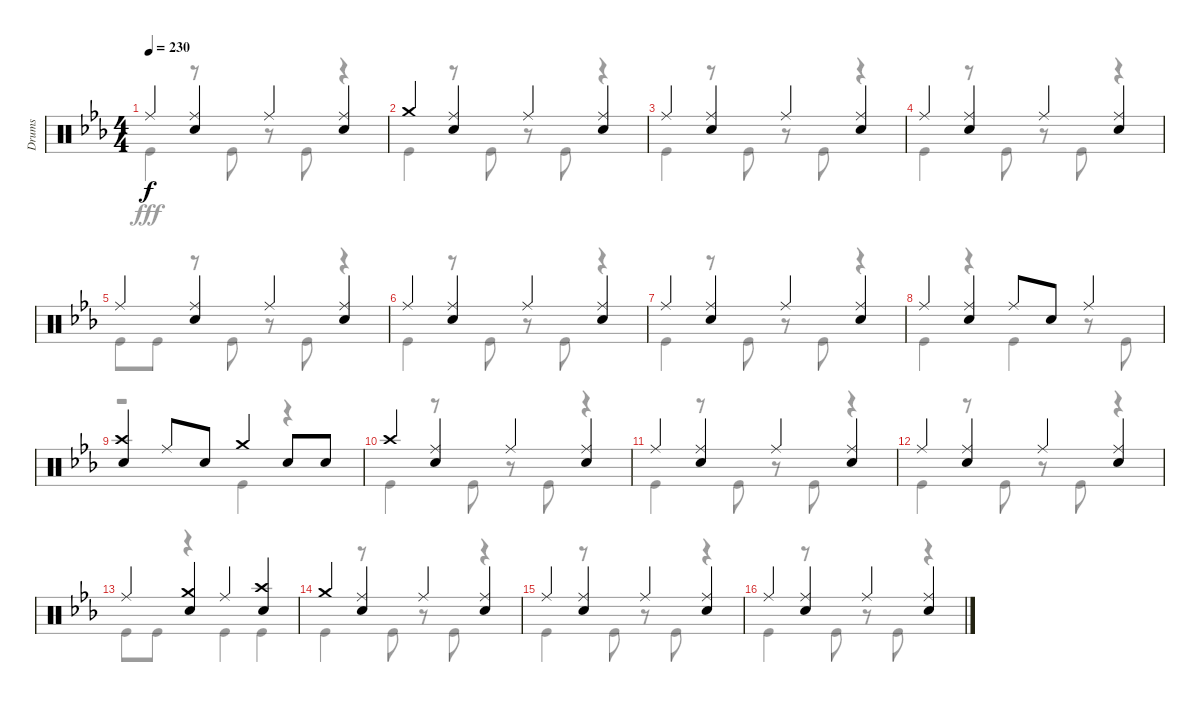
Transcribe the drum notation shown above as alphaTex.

\track ("Drums" "Drums") {instrument percussion}
\staff {score}
\articulation defaults
\voice
\ts (4 4)
\tempo 230
\clef neutral
\ks eb "Ride (middle)".4{dy f}
("Ride (middle)" "Snare (hit) 2").4 "Ride (middle)".4 ("Ride (middle)" "Snare (hit) 2").4 |
"Crash medium (hit)".4 ("Ride (middle)" "Snare (hit) 2").4 "Ride (middle)".4 ("Ride (middle)" "Snare (hit) 2").4 |
"Ride (middle)".4 ("Ride (middle)" "Snare (hit) 2").4 "Ride (middle)".4 ("Ride (middle)" "Snare (hit) 2").4 |
"Ride (middle)".4 ("Ride (middle)" "Snare (hit) 2").4 "Ride (middle)".4 ("Ride (middle)" "Snare (hit) 2").4 |
"Ride (middle)".4 ("Ride (middle)" "Snare (hit) 2").4 "Ride (middle)".4 ("Ride (middle)" "Snare (hit) 2").4 |
"Ride (middle)".4 ("Ride (middle)" "Snare (hit) 2").4 "Ride (middle)".4 ("Ride (middle)" "Snare (hit) 2").4 |
"Ride (middle)".4 ("Ride (middle)" "Snare (hit) 2").4 "Ride (middle)".4 ("Ride (middle)" "Snare (hit) 2").4 |
"Ride (middle)".4 ("Ride (middle)" "Snare (hit) 2").4 "Ride (middle)".8 "Snare (hit) 2".8 "Ride (middle)".4 |
("Crash high (hit)" "Snare (hit) 2").4 "Ride (middle)".8 "Snare (hit) 2".8 "Crash medium (hit)".4 "Snare (hit) 2".8 "Snare (hit) 2".8 |
"Crash high (hit)".4 ("Ride (middle)" "Snare (hit) 2").4 "Ride (middle)".4 ("Ride (middle)" "Snare (hit) 2").4 |
"Ride (middle)".4 ("Ride (middle)" "Snare (hit) 2").4 "Ride (middle)".4 ("Ride (middle)" "Snare (hit) 2").4 |
"Ride (middle)".4 ("Ride (middle)" "Snare (hit) 2").4 "Ride (middle)".4 ("Ride (middle)" "Snare (hit) 2").4 |
"Ride (middle)".4 ("Crash medium (hit)" "Snare (hit) 2").4 "Ride (middle)".4 ("Crash high (hit)" "Snare (hit) 2").4 |
"Crash medium (hit)".4 ("Ride (middle)" "Snare (hit) 2").4 "Ride (middle)".4 ("Ride (middle)" "Snare (hit) 2").4 |
"Ride (middle)".4 ("Ride (middle)" "Snare (hit) 2").4 "Ride (middle)".4 ("Ride (middle)" "Snare (hit) 2").4 |
"Ride (middle)".4 ("Ride (middle)" "Snare (hit) 2").4 "Ride (middle)".4 ("Ride (middle)" "Snare (hit) 2").4
\voice
\clef neutral
\ottava regular
\simile none
\ks eb "Kick (hit)".4{dy fff}
r.8 "Kick (hit)".8 r.8 "Kick (hit)".8 r.4 |
"Kick (hit)".4 r.8 "Kick (hit)".8 r.8 "Kick (hit)".8 r.4 |
"Kick (hit)".4 r.8 "Kick (hit)".8 r.8 "Kick (hit)".8 r.4 |
"Kick (hit)".4 r.8 "Kick (hit)".8 r.8 "Kick (hit)".8 r.4 |
"Kick (hit)".8 "Kick (hit)".8 r.8 "Kick (hit)".8 r.8 "Kick (hit)".8 r.4 |
"Kick (hit)".4 r.8 "Kick (hit)".8 r.8 "Kick (hit)".8 r.4 |
"Kick (hit)".4 r.8 "Kick (hit)".8 r.8 "Kick (hit)".8 r.4 |
"Kick (hit)".4 r.4 "Kick (hit)".4 r.8 "Kick (hit)".8 |
r.2 "Kick (hit)".4 r.4 |
"Kick (hit)".4 r.8 "Kick (hit)".8 r.8 "Kick (hit)".8 r.4 |
"Kick (hit)".4 r.8 "Kick (hit)".8 r.8 "Kick (hit)".8 r.4 |
"Kick (hit)".4 r.8 "Kick (hit)".8 r.8 "Kick (hit)".8 r.4 |
"Kick (hit)".8 "Kick (hit)".8 r.4 "Kick (hit)".4 "Kick (hit)".4 |
"Kick (hit)".4 r.8 "Kick (hit)".8 r.8 "Kick (hit)".8 r.4 |
"Kick (hit)".4 r.8 "Kick (hit)".8 r.8 "Kick (hit)".8 r.4 |
"Kick (hit)".4 r.8 "Kick (hit)".8 r.8 "Kick (hit)".8 r.4
